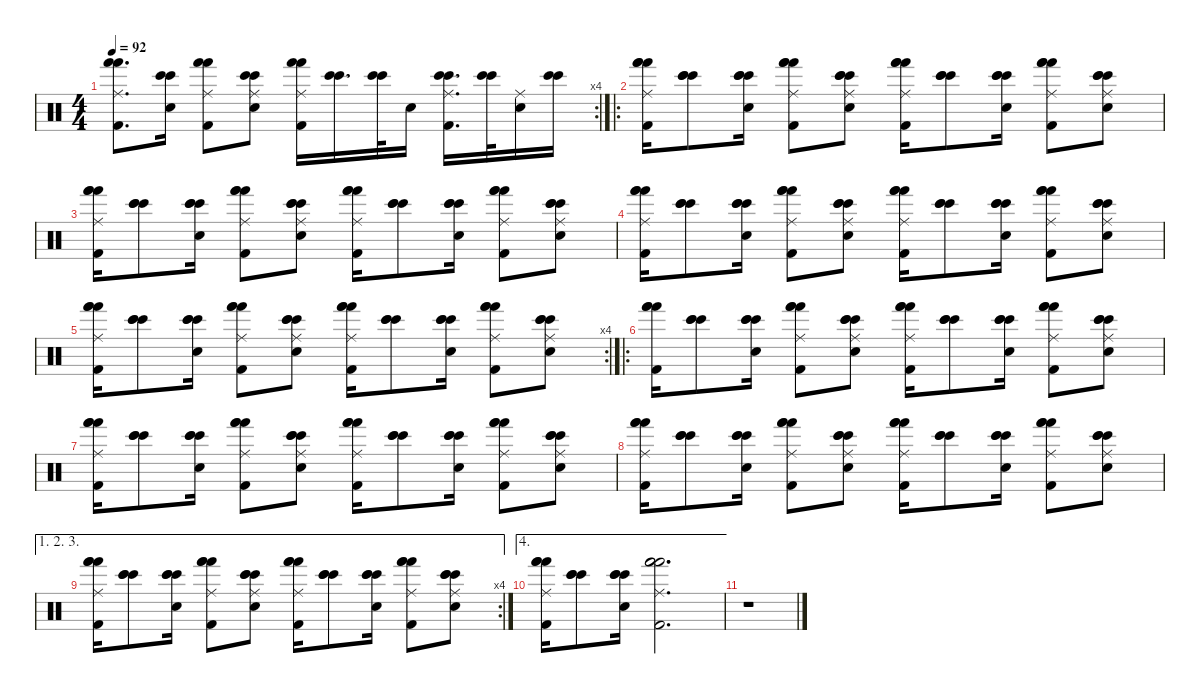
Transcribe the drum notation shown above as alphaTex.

\defaultSystemsLayout 4
\hideDynamics
\bracketExtendMode nobrackets
\singleTrackTrackNamePolicy hidden
\multiTrackTrackNamePolicy hidden
\firstSystemTrackNameMode fullname
\firstSystemTrackNameOrientation horizontal
\otherSystemsTrackNameOrientation horizontal
\track ("Percussions" "drm.") {defaultSystemsLayout 4 instrument percussion}
\staff {score}
\articulation defaults
\rc 4
\ts (4 4)
\tempo 92
\clef neutral
\ks c
("Hand (hit)" "Hand (hit)" "Kick (hit) 2" "Ride (middle)").8{d dy fff beam Down} ("Bongo High (hit)" "Bongo High (hit)" "Snare (hit) 2").16{beam Down} ("Hand (hit)" "Hand (hit)" "Kick (hit) 2" "Ride (middle)").8{beam Down} ("Bongo High (hit)" "Bongo High (hit)" "Snare (hit) 2" "Ride (middle)").8{beam Down} ("Hand (hit)" "Hand (hit)" "Kick (hit) 2" "Ride (middle)").16{beam Down} ("Bongo High (hit)" "Bongo High (hit)").16{d beam Down} ("Bongo High (hit)" "Bongo High (hit)").32{beam Down} "Snare (hit) 2".16{beam Down} ("Bongo High (hit)" "Bongo High (hit)" "Kick (hit) 2" "Ride (middle)").16{d beam Down} ("Bongo High (hit)" "Bongo High (hit)").32{beam Down} ("Snare (hit) 2" "Ride (middle)").16{beam Down} ("Bongo High (hit)" "Bongo High (hit)").16{beam Down} |
\ro
("Hand (hit)" "Hand (hit)" "Hand (hit)" "Kick (hit) 2" "Ride (middle)").16{beam Down} ("Bongo High (hit)" "Bongo High (hit)" "Bongo High (hit)").8{beam Down} ("Bongo High (hit)" "Bongo High (hit)" "Snare (hit) 2" "Bongo High (hit)").16{beam Down} ("Hand (hit)" "Hand (hit)" "Hand (hit)" "Kick (hit) 2" "Ride (middle)").8{beam Down} ("Bongo High (hit)" "Bongo High (hit)" "Snare (hit) 2" "Bongo High (hit)" "Ride (middle)").8{beam Down} ("Hand (hit)" "Hand (hit)" "Hand (hit)" "Kick (hit) 2" "Ride (middle)").16{beam Down} ("Bongo High (hit)" "Bongo High (hit)" "Bongo High (hit)").8{beam Down} ("Bongo High (hit)" "Bongo High (hit)" "Snare (hit) 2" "Bongo High (hit)").16{beam Down} ("Hand (hit)" "Hand (hit)" "Hand (hit)" "Kick (hit) 2" "Ride (middle)").8{beam Down} ("Bongo High (hit)" "Bongo High (hit)" "Snare (hit) 2" "Bongo High (hit)" "Ride (middle)").8{beam Down} |
("Hand (hit)" "Hand (hit)" "Hand (hit)" "Kick (hit) 2" "Ride (middle)").16{beam Down} ("Bongo High (hit)" "Bongo High (hit)" "Bongo High (hit)").8{beam Down} ("Bongo High (hit)" "Bongo High (hit)" "Snare (hit) 2" "Bongo High (hit)").16{beam Down} ("Hand (hit)" "Hand (hit)" "Hand (hit)" "Kick (hit) 2" "Ride (middle)").8{beam Down} ("Bongo High (hit)" "Bongo High (hit)" "Snare (hit) 2" "Bongo High (hit)" "Ride (middle)").8{beam Down} ("Hand (hit)" "Hand (hit)" "Hand (hit)" "Kick (hit) 2" "Ride (middle)").16{beam Down} ("Bongo High (hit)" "Bongo High (hit)" "Bongo High (hit)").8{beam Down} ("Bongo High (hit)" "Bongo High (hit)" "Snare (hit) 2" "Bongo High (hit)").16{beam Down} ("Hand (hit)" "Hand (hit)" "Hand (hit)" "Kick (hit) 2" "Ride (middle)").8{beam Down} ("Bongo High (hit)" "Bongo High (hit)" "Snare (hit) 2" "Bongo High (hit)" "Ride (middle)").8{beam Down} |
("Hand (hit)" "Hand (hit)" "Hand (hit)" "Kick (hit) 2" "Ride (middle)").16{beam Down} ("Bongo High (hit)" "Bongo High (hit)" "Bongo High (hit)").8{beam Down} ("Bongo High (hit)" "Bongo High (hit)" "Snare (hit) 2" "Bongo High (hit)").16{beam Down} ("Hand (hit)" "Hand (hit)" "Hand (hit)" "Kick (hit) 2" "Ride (middle)").8{beam Down} ("Bongo High (hit)" "Bongo High (hit)" "Snare (hit) 2" "Bongo High (hit)" "Ride (middle)").8{beam Down} ("Hand (hit)" "Hand (hit)" "Hand (hit)" "Kick (hit) 2" "Ride (middle)").16{beam Down} ("Bongo High (hit)" "Bongo High (hit)" "Bongo High (hit)").8{beam Down} ("Bongo High (hit)" "Bongo High (hit)" "Snare (hit) 2" "Bongo High (hit)").16{beam Down} ("Hand (hit)" "Hand (hit)" "Hand (hit)" "Kick (hit) 2" "Ride (middle)").8{beam Down} ("Bongo High (hit)" "Bongo High (hit)" "Snare (hit) 2" "Bongo High (hit)" "Ride (middle)").8{beam Down} |
\rc 4
("Hand (hit)" "Hand (hit)" "Hand (hit)" "Kick (hit) 2" "Ride (middle)").16{beam Down} ("Bongo High (hit)" "Bongo High (hit)" "Bongo High (hit)").8{beam Down} ("Bongo High (hit)" "Bongo High (hit)" "Snare (hit) 2" "Bongo High (hit)").16{beam Down} ("Hand (hit)" "Hand (hit)" "Hand (hit)" "Kick (hit) 2" "Ride (middle)").8{beam Down} ("Bongo High (hit)" "Bongo High (hit)" "Snare (hit) 2" "Bongo High (hit)" "Ride (middle)").8{beam Down} ("Hand (hit)" "Hand (hit)" "Hand (hit)" "Kick (hit) 2" "Ride (middle)").16{beam Down} ("Bongo High (hit)" "Bongo High (hit)" "Bongo High (hit)").8{beam Down} ("Bongo High (hit)" "Bongo High (hit)" "Snare (hit) 2" "Bongo High (hit)").16{beam Down} ("Hand (hit)" "Hand (hit)" "Hand (hit)" "Kick (hit) 2" "Ride (middle)").8{beam Down} ("Bongo High (hit)" "Bongo High (hit)" "Snare (hit) 2" "Bongo High (hit)" "Ride (middle)").8{beam Down} |
\ro
("Hand (hit)" "Hand (hit)" "Hand (hit)" "Kick (hit) 2").16{beam Down} ("Bongo High (hit)" "Bongo High (hit)" "Bongo High (hit)").8{beam Down} ("Bongo High (hit)" "Bongo High (hit)" "Snare (hit) 2" "Bongo High (hit)").16{beam Down} ("Hand (hit)" "Hand (hit)" "Hand (hit)" "Kick (hit) 2" "Ride (middle)").8{beam Down} ("Bongo High (hit)" "Bongo High (hit)" "Snare (hit) 2" "Bongo High (hit)" "Ride (middle)").8{beam Down} ("Hand (hit)" "Hand (hit)" "Hand (hit)" "Kick (hit) 2" "Ride (middle)").16{beam Down} ("Bongo High (hit)" "Bongo High (hit)" "Bongo High (hit)").8{beam Down} ("Bongo High (hit)" "Bongo High (hit)" "Snare (hit) 2" "Bongo High (hit)").16{beam Down} ("Hand (hit)" "Hand (hit)" "Hand (hit)" "Kick (hit) 2" "Ride (middle)").8{beam Down} ("Bongo High (hit)" "Bongo High (hit)" "Snare (hit) 2" "Bongo High (hit)" "Ride (middle)").8{beam Down} |
("Hand (hit)" "Hand (hit)" "Hand (hit)" "Kick (hit) 2" "Ride (middle)").16{beam Down} ("Bongo High (hit)" "Bongo High (hit)" "Bongo High (hit)").8{beam Down} ("Bongo High (hit)" "Bongo High (hit)" "Snare (hit) 2" "Bongo High (hit)").16{beam Down} ("Hand (hit)" "Hand (hit)" "Hand (hit)" "Kick (hit) 2" "Ride (middle)").8{beam Down} ("Bongo High (hit)" "Bongo High (hit)" "Snare (hit) 2" "Bongo High (hit)" "Ride (middle)").8{beam Down} ("Hand (hit)" "Hand (hit)" "Hand (hit)" "Kick (hit) 2" "Ride (middle)").16{beam Down} ("Bongo High (hit)" "Bongo High (hit)" "Bongo High (hit)").8{beam Down} ("Bongo High (hit)" "Bongo High (hit)" "Snare (hit) 2" "Bongo High (hit)").16{beam Down} ("Hand (hit)" "Hand (hit)" "Hand (hit)" "Kick (hit) 2" "Ride (middle)").8{beam Down} ("Bongo High (hit)" "Bongo High (hit)" "Snare (hit) 2" "Bongo High (hit)" "Ride (middle)").8{beam Down} |
("Hand (hit)" "Hand (hit)" "Hand (hit)" "Kick (hit) 2" "Ride (middle)").16{beam Down} ("Bongo High (hit)" "Bongo High (hit)" "Bongo High (hit)").8{beam Down} ("Bongo High (hit)" "Bongo High (hit)" "Snare (hit) 2" "Bongo High (hit)").16{beam Down} ("Hand (hit)" "Hand (hit)" "Hand (hit)" "Kick (hit) 2" "Ride (middle)").8{beam Down} ("Bongo High (hit)" "Bongo High (hit)" "Snare (hit) 2" "Bongo High (hit)" "Ride (middle)").8{beam Down} ("Hand (hit)" "Hand (hit)" "Hand (hit)" "Kick (hit) 2" "Ride (middle)").16{beam Down} ("Bongo High (hit)" "Bongo High (hit)" "Bongo High (hit)").8{beam Down} ("Bongo High (hit)" "Bongo High (hit)" "Snare (hit) 2" "Bongo High (hit)").16{beam Down} ("Hand (hit)" "Hand (hit)" "Hand (hit)" "Kick (hit) 2" "Ride (middle)").8{beam Down} ("Bongo High (hit)" "Bongo High (hit)" "Snare (hit) 2" "Bongo High (hit)" "Ride (middle)").8{beam Down} |
\ae (1 2 3)
\rc 4
("Hand (hit)" "Hand (hit)" "Hand (hit)" "Kick (hit) 2" "Ride (middle)").16{beam Down} ("Bongo High (hit)" "Bongo High (hit)" "Bongo High (hit)").8{beam Down} ("Bongo High (hit)" "Bongo High (hit)" "Snare (hit) 2" "Bongo High (hit)").16{beam Down} ("Hand (hit)" "Hand (hit)" "Hand (hit)" "Kick (hit) 2" "Ride (middle)").8{beam Down} ("Bongo High (hit)" "Bongo High (hit)" "Snare (hit) 2" "Bongo High (hit)" "Ride (middle)").8{beam Down} ("Hand (hit)" "Hand (hit)" "Hand (hit)" "Kick (hit) 2" "Ride (middle)").16{beam Down} ("Bongo High (hit)" "Bongo High (hit)" "Bongo High (hit)").8{beam Down} ("Bongo High (hit)" "Bongo High (hit)" "Snare (hit) 2" "Bongo High (hit)").16{beam Down} ("Hand (hit)" "Hand (hit)" "Hand (hit)" "Kick (hit) 2" "Ride (middle)").8{beam Down} ("Bongo High (hit)" "Bongo High (hit)" "Snare (hit) 2" "Bongo High (hit)" "Ride (middle)").8{beam Down} |
\ae 4
("Hand (hit)" "Hand (hit)" "Hand (hit)" "Kick (hit) 2" "Ride (middle)").16{beam Down} ("Bongo High (hit)" "Bongo High (hit)" "Bongo High (hit)").8{beam Down} ("Bongo High (hit)" "Bongo High (hit)" "Snare (hit) 2" "Bongo High (hit)").16{beam Down} ("Hand (hit)" "Hand (hit)" "Hand (hit)" "Kick (hit) 2" "Ride (middle)").2{d beam Down} |
r.1{beam Down}
